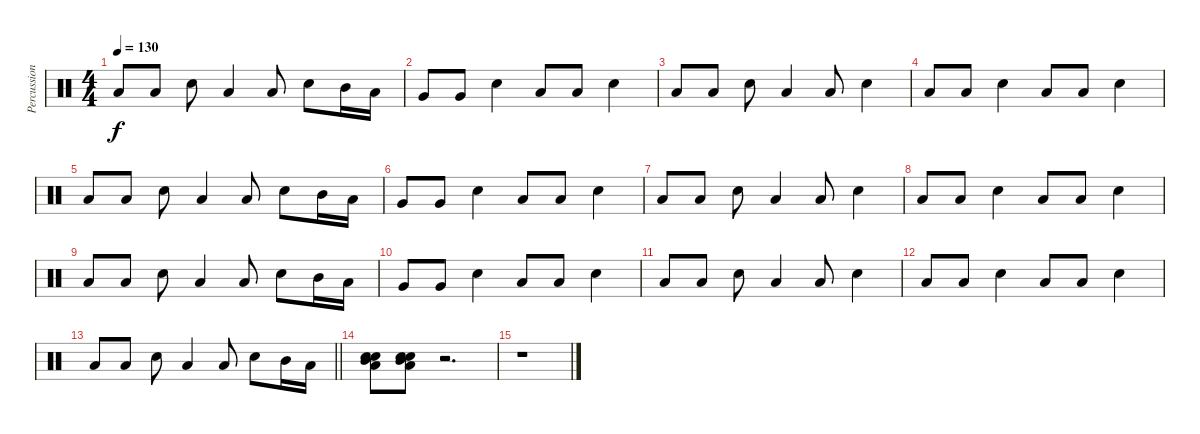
\track ("Percussion 1" "Percussion") {instrument percussion}
\staff {score}
\articulation defaults
\ts (4 4)
\tempo 130
\clef neutral
\ks c "Low Floor Tom (hit)".8{dy f} "Low Floor Tom (hit)".8 "Electric Snare (hit)".8 "Low Floor Tom (hit)".4 "Low Floor Tom (hit)".8 "Electric Snare (hit)".8 "Mid Tom (hit)".16 "Low Tom (hit)".16
|
"Very Low Tom (hit)".8 "Very Low Tom (hit)".8 "Electric Snare (hit)".4 "Low Floor Tom (hit)".8 "Low Floor Tom (hit)".8 "Electric Snare (hit)".4 |
"Low Floor Tom (hit)".8 "Low Floor Tom (hit)".8 "Electric Snare (hit)".8 "Low Floor Tom (hit)".4 "Low Floor Tom (hit)".8 "Electric Snare (hit)".4 |
"Low Floor Tom (hit)".8 "Low Floor Tom (hit)".8 "Electric Snare (hit)".4 "Low Floor Tom (hit)".8 "Low Floor Tom (hit)".8 "Electric Snare (hit)".4 |
"Low Floor Tom (hit)".8 "Low Floor Tom (hit)".8 "Electric Snare (hit)".8 "Low Floor Tom (hit)".4 "Low Floor Tom (hit)".8 "Electric Snare (hit)".8 "Mid Tom (hit)".16 "Low Tom (hit)".16 |
"Very Low Tom (hit)".8 "Very Low Tom (hit)".8 "Electric Snare (hit)".4 "Low Floor Tom (hit)".8 "Low Floor Tom (hit)".8 "Electric Snare (hit)".4 |
"Low Floor Tom (hit)".8 "Low Floor Tom (hit)".8 "Electric Snare (hit)".8 "Low Floor Tom (hit)".4 "Low Floor Tom (hit)".8 "Electric Snare (hit)".4 |
"Low Floor Tom (hit)".8 "Low Floor Tom (hit)".8 "Electric Snare (hit)".4 "Low Floor Tom (hit)".8 "Low Floor Tom (hit)".8 "Electric Snare (hit)".4 |
"Low Floor Tom (hit)".8 "Low Floor Tom (hit)".8 "Electric Snare (hit)".8 "Low Floor Tom (hit)".4 "Low Floor Tom (hit)".8 "Electric Snare (hit)".8 "Mid Tom (hit)".16 "Low Tom (hit)".16 |
"Very Low Tom (hit)".8 "Very Low Tom (hit)".8 "Electric Snare (hit)".4 "Low Floor Tom (hit)".8 "Low Floor Tom (hit)".8 "Electric Snare (hit)".4 |
"Low Floor Tom (hit)".8 "Low Floor Tom (hit)".8 "Electric Snare (hit)".8 "Low Floor Tom (hit)".4 "Low Floor Tom (hit)".8 "Electric Snare (hit)".4 |
"Low Floor Tom (hit)".8 "Low Floor Tom (hit)".8 "Electric Snare (hit)".4 "Low Floor Tom (hit)".8 "Low Floor Tom (hit)".8 "Electric Snare (hit)".4 |
\barLineRight lightlight "Low Floor Tom (hit)".8 "Low Floor Tom (hit)".8 "Electric Snare (hit)".8 "Low Floor Tom (hit)".4 "Low Floor Tom (hit)".8 "Electric Snare (hit)".8 "Mid Tom (hit)".16 "Low Tom (hit)".16
|
("Electric Snare (hit)" "Snare (hit) 2" "Low Floor Tom (hit)" "Mid Tom (hit)").8 ("Electric Snare (hit)" "Snare (hit) 2" "Low Floor Tom (hit)" "Mid Tom (hit)").8 r.2{d} |
r.1
